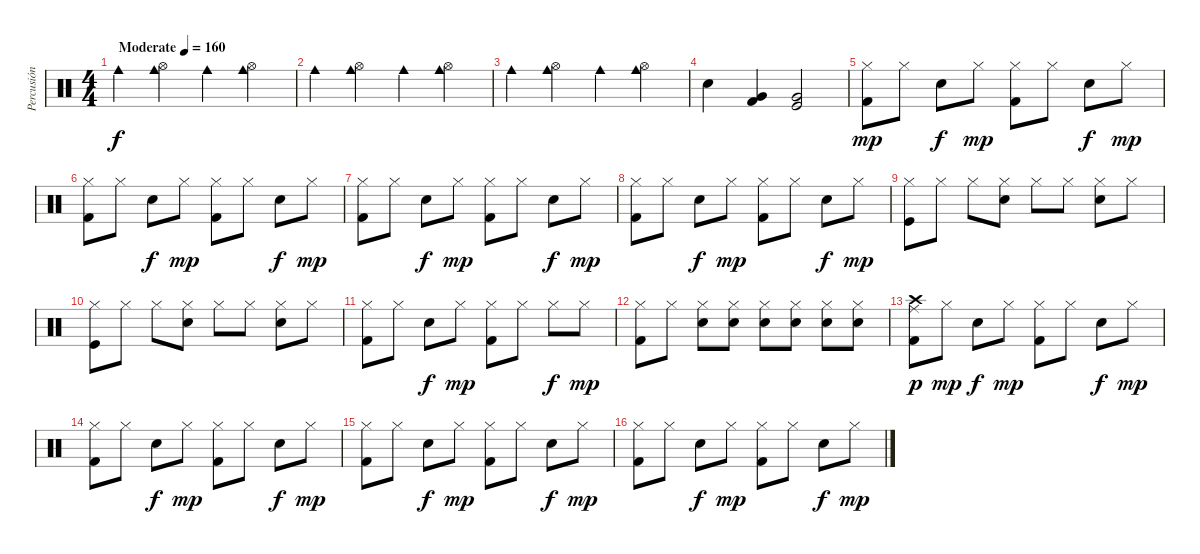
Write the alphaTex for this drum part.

\track ("Percusión" "Percusión") {instrument percussion}
\staff {score}
\articulation defaults
\ts (4 4)
\tempo (160 "Moderate")
\clef neutral
\ks c "Cowbell medium (hit)".4{dy f}
("Cowbell medium (hit)" "Hi-Hat (open)").4 "Cowbell medium (hit)".4 ("Cowbell medium (hit)" "Hi-Hat (open)").4 |
"Cowbell medium (hit)".4 ("Cowbell medium (hit)" "Hi-Hat (open)").4 "Cowbell medium (hit)".4 ("Cowbell medium (hit)" "Hi-Hat (open)").4 |
"Cowbell medium (hit)".4 ("Cowbell medium (hit)" "Hi-Hat (open)").4 "Cowbell medium (hit)".4 ("Cowbell medium (hit)" "Hi-Hat (open)").4 |
"Snare (hit) 2".4 ("Very Low Tom (hit)" "Kick (hit) 2").4 ("Very Low Tom (hit)" "Kick (hit)").2 |
("Hi-Hat (closed)" "Kick (hit) 2").8{dy mp} "Hi-Hat (closed)".8 "Snare (hit) 2".8{dy f} "Hi-Hat (closed)".8{dy mp} ("Hi-Hat (closed)" "Kick (hit) 2").8 "Hi-Hat (closed)".8 "Snare (hit) 2".8{dy f} "Hi-Hat (closed)".8{dy mp} |
("Hi-Hat (closed)" "Kick (hit) 2").8 "Hi-Hat (closed)".8 "Snare (hit) 2".8{dy f} "Hi-Hat (closed)".8{dy mp} ("Hi-Hat (closed)" "Kick (hit) 2").8 "Hi-Hat (closed)".8 "Snare (hit) 2".8{dy f} "Hi-Hat (closed)".8{dy mp} |
("Hi-Hat (closed)" "Kick (hit) 2").8 "Hi-Hat (closed)".8 "Snare (hit) 2".8{dy f} "Hi-Hat (closed)".8{dy mp} ("Hi-Hat (closed)" "Kick (hit) 2").8 "Hi-Hat (closed)".8 "Snare (hit) 2".8{dy f} "Hi-Hat (closed)".8{dy mp} |
("Hi-Hat (closed)" "Kick (hit) 2").8 "Hi-Hat (closed)".8 "Snare (hit) 2".8{dy f} "Hi-Hat (closed)".8{dy mp} ("Hi-Hat (closed)" "Kick (hit) 2").8 "Hi-Hat (closed)".8 "Snare (hit) 2".8{dy f} "Hi-Hat (closed)".8{dy mp} |
("Hi-Hat (closed)" "Kick (hit)").8 "Hi-Hat (closed)".8 "Hi-Hat (closed)".8 ("Hi-Hat (closed)" "Snare (hit) 2").8 "Hi-Hat (closed)".8 "Hi-Hat (closed)".8 ("Hi-Hat (closed)" "Snare (hit) 2").8 "Hi-Hat (closed)".8 |
("Hi-Hat (closed)" "Kick (hit)").8 "Hi-Hat (closed)".8 "Hi-Hat (closed)".8 ("Hi-Hat (closed)" "Snare (hit) 2").8 "Hi-Hat (closed)".8 "Hi-Hat (closed)".8 ("Hi-Hat (closed)" "Snare (hit) 2").8 "Hi-Hat (closed)".8 |
("Hi-Hat (closed)" "Kick (hit) 2").8 "Hi-Hat (closed)".8 "Snare (hit) 2".8{dy f} "Hi-Hat (closed)".8{dy mp} ("Hi-Hat (closed)" "Kick (hit) 2").8 "Hi-Hat (closed)".8 "Hi-Hat (closed)".8{dy f} "Hi-Hat (closed)".8{dy mp} |
("Hi-Hat (closed)" "Kick (hit) 2").8 "Hi-Hat (closed)".8 ("Hi-Hat (closed)" "Snare (hit) 2").8 ("Hi-Hat (closed)" "Snare (hit) 2").8 ("Hi-Hat (closed)" "Snare (hit) 2").8 ("Hi-Hat (closed)" "Snare (hit) 2").8 ("Hi-Hat (closed)" "Snare (hit) 2").8 ("Hi-Hat (closed)" "Snare (hit) 2").8 |
("Ride (middle)" "Crash high (hit)" "Kick (hit) 2").8{dy p} "Hi-Hat (closed)".8{dy mp} "Snare (hit) 2".8{dy f} "Hi-Hat (closed)".8{dy mp} ("Hi-Hat (closed)" "Kick (hit) 2").8 "Hi-Hat (closed)".8 "Snare (hit) 2".8{dy f} "Hi-Hat (closed)".8{dy mp} |
("Hi-Hat (closed)" "Kick (hit) 2").8 "Hi-Hat (closed)".8 "Snare (hit) 2".8{dy f} "Hi-Hat (closed)".8{dy mp} ("Hi-Hat (closed)" "Kick (hit) 2").8 "Hi-Hat (closed)".8 "Snare (hit) 2".8{dy f} "Hi-Hat (closed)".8{dy mp} |
("Hi-Hat (closed)" "Kick (hit) 2").8 "Hi-Hat (closed)".8 "Snare (hit) 2".8{dy f} "Hi-Hat (closed)".8{dy mp} ("Hi-Hat (closed)" "Kick (hit) 2").8 "Hi-Hat (closed)".8 "Snare (hit) 2".8{dy f} "Hi-Hat (closed)".8{dy mp} |
("Hi-Hat (closed)" "Kick (hit) 2").8 "Hi-Hat (closed)".8 "Snare (hit) 2".8{dy f} "Hi-Hat (closed)".8{dy mp} ("Hi-Hat (closed)" "Kick (hit) 2").8 "Hi-Hat (closed)".8 "Snare (hit) 2".8{dy f} "Hi-Hat (closed)".8{dy mp}
